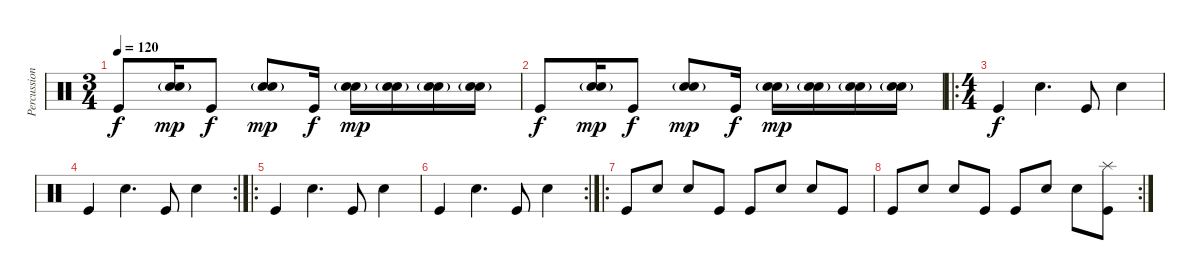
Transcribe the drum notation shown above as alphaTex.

\track ("Percussion" "Percussion") {instrument percussion}
\staff {score}
\articulation defaults
\ts (3 4)
\tempo 120
\clef neutral
\ks c "Kick (hit)".8{dy f}
("Hand Clap (hit)" "Snare (hit) 2"{g}).16{dy mp} "Kick (hit)".8{dy f} ("Hand Clap (hit)" "Snare (hit) 2"{g}).8{dy mp} "Kick (hit)".16{dy f} ("Hand Clap (hit)" "Snare (hit) 2"{g}).16{dy mp} ("Hand Clap (hit)" "Snare (hit) 2"{g}).16 ("Hand Clap (hit)" "Snare (hit) 2"{g}).16 ("Hand Clap (hit)" "Snare (hit) 2"{g}).16 |
"Kick (hit)".8{dy f} ("Hand Clap (hit)" "Snare (hit) 2"{g}).16{dy mp} "Kick (hit)".8{dy f} ("Hand Clap (hit)" "Snare (hit) 2"{g}).8{dy mp} "Kick (hit)".16{dy f} ("Hand Clap (hit)" "Snare (hit) 2"{g}).16{dy mp} ("Hand Clap (hit)" "Snare (hit) 2"{g}).16 ("Hand Clap (hit)" "Snare (hit) 2"{g}).16 ("Hand Clap (hit)" "Snare (hit) 2"{g}).16 |
\ro
\ts (4 4)
"Kick (hit)".4{dy f} "Hand Clap (hit)".4{d} "Kick (hit)".8 "Hand Clap (hit)".4 |
\rc 2 "Kick (hit)".4 "Hand Clap (hit)".4{d} "Kick (hit)".8 "Hand Clap (hit)".4
|
\ro "Kick (hit)".4 "Hand Clap (hit)".4{d} "Kick (hit)".8 "Hand Clap (hit)".4
|
\rc 2 "Kick (hit)".4 "Hand Clap (hit)".4{d} "Kick (hit)".8 "Hand Clap (hit)".4
|
\ro "Kick (hit)".8 "Hand Clap (hit)".8 "Hand Clap (hit)".8 "Kick (hit)".8 "Kick (hit)".8 "Hand Clap (hit)".8 "Hand Clap (hit)".8 "Kick (hit)".8
|
\rc 2 "Kick (hit)".8 "Hand Clap (hit)".8 "Hand Clap (hit)".8 "Kick (hit)".8 "Kick (hit)".8 "Hand Clap (hit)".8 "Hand Clap (hit)".8
("Splash (hit)" "Kick (hit)").8
